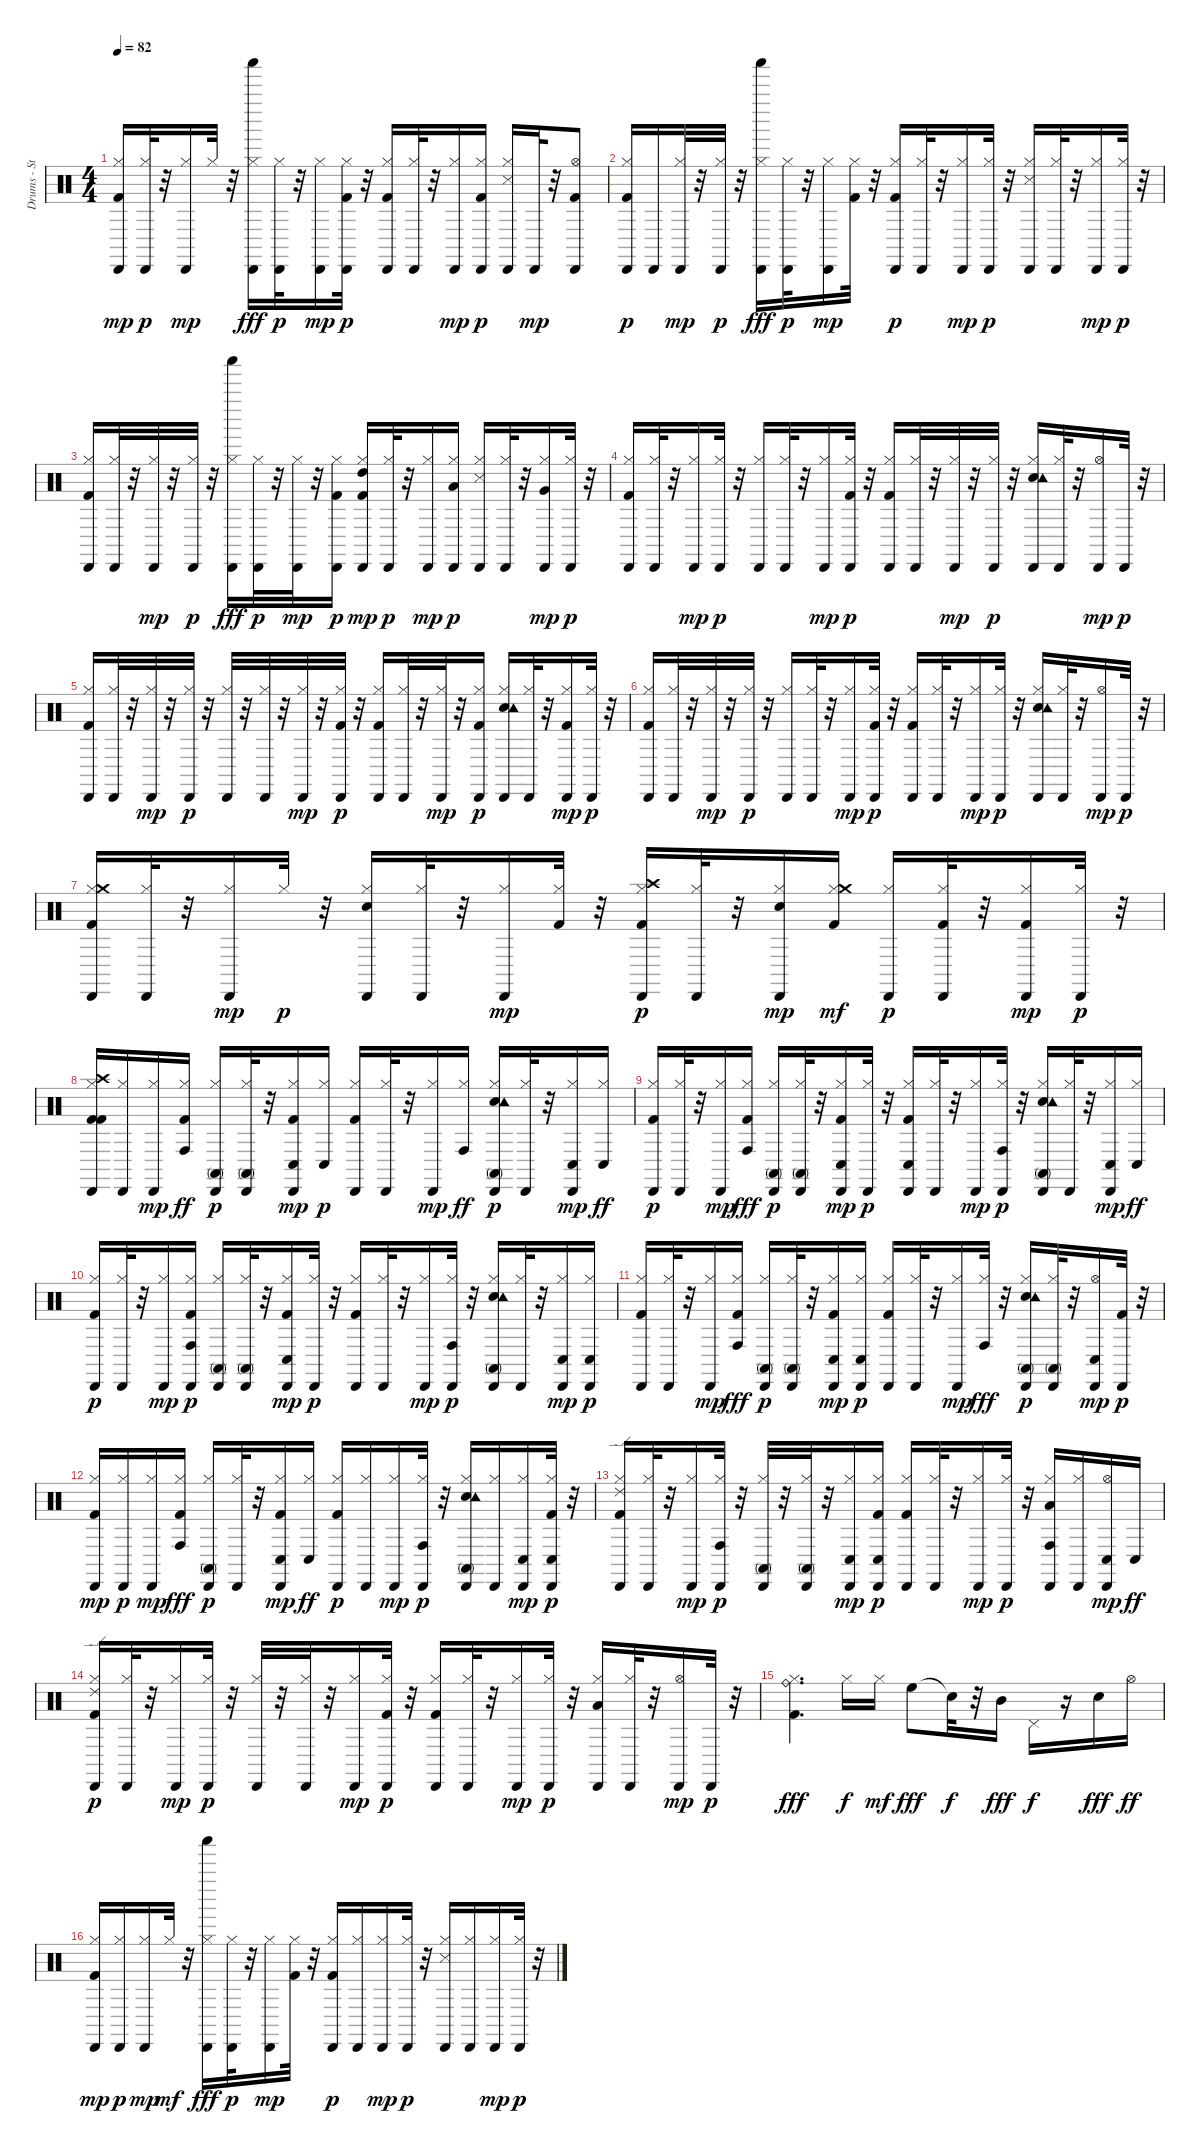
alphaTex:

\track ("Drums - Standard" "Drums - St") {instrument percussion}
\staff {score}
\articulation defaults
\ts (4 4)
\tempo 82
\clef neutral
\ks c
("Kick (hit) 2" "Hi-Hat (closed)" "Cabasa (hit)").16{dy mp} ("Hi-Hat (closed)" "Cabasa (hit)").32{dy p} r.32 ("Hi-Hat (closed)" "Cabasa (hit)").16{dy mp} "Hi-Hat (closed)".32 r.32 ("Hi-Hat (closed)" "Cabasa (hit)" "Shaker (hit)").16{dy fff} ("Hi-Hat (closed)" "Cabasa (hit)").32{dy p} r.32 ("Hi-Hat (closed)" "Cabasa (hit)").16{dy mp} ("Kick (hit) 2" "Hi-Hat (closed)" "Cabasa (hit)").32{dy p} r.32 ("Kick (hit) 2" "Hi-Hat (closed)" "Cabasa (hit)").16 ("Hi-Hat (closed)" "Cabasa (hit)").32 r.32 ("Hi-Hat (closed)" "Cabasa (hit)").16{dy mp} ("Kick (hit) 2" "Hi-Hat (closed)" "Cabasa (hit)").16{dy p} ("Snare (side stick) 3" "Hi-Hat (closed)" "Cabasa (hit)").16 "Cabasa (hit)".32{dy mp} r.32 ("Kick (hit) 2" "Hi-Hat (open)" "Cabasa (hit)").8 |
("Kick (hit) 2" "Hi-Hat (closed)" "Cabasa (hit)").16{dy p} "Cabasa (hit)".16 ("Hi-Hat (closed)" "Cabasa (hit)").32{dy mp} r.32 ("Hi-Hat (closed)" "Cabasa (hit)").32{dy p} r.32 ("Hi-Hat (closed)" "Cabasa (hit)" "Shaker (hit)").16{dy fff} ("Hi-Hat (closed)" "Cabasa (hit)").32{dy p} r.32 ("Hi-Hat (closed)" "Cabasa (hit)").16{dy mp} ("Kick (hit) 2" "Hi-Hat (closed)").32 r.32 ("Kick (hit) 2" "Hi-Hat (closed)" "Cabasa (hit)").16{dy p} ("Hi-Hat (closed)" "Cabasa (hit)").32 r.32 ("Hi-Hat (closed)" "Cabasa (hit)").16{dy mp} ("Hi-Hat (closed)" "Cabasa (hit)").32{dy p} r.32 ("Snare (side stick) 3" "Hi-Hat (closed)" "Cabasa (hit)").16 ("Hi-Hat (closed)" "Cabasa (hit)").32 r.32 ("Hi-Hat (closed)" "Cabasa (hit)").16{dy mp} ("Hi-Hat (closed)" "Cabasa (hit)").32{dy p} r.32 |
("Kick (hit) 2" "Hi-Hat (closed)" "Cabasa (hit)").16 ("Hi-Hat (closed)" "Cabasa (hit)").32 r.32 ("Hi-Hat (closed)" "Cabasa (hit)").32{dy mp} r.32 ("Hi-Hat (closed)" "Cabasa (hit)").32{dy p} r.32 ("Hi-Hat (closed)" "Cabasa (hit)" "Shaker (hit)").16{dy fff} ("Hi-Hat (closed)" "Cabasa (hit)").32{dy p} r.32 ("Hi-Hat (closed)" "Cabasa (hit)").32{dy mp} r.32 ("Kick (hit) 2" "Hi-Hat (closed)" "Cabasa (hit)").16{dy p} ("Kick (hit) 2" "Hi-Hat (closed)" "High Tom (hit)" "Cabasa (hit)").16{dy mp} ("Hi-Hat (closed)" "Cabasa (hit)").32{dy p} r.32 ("Hi-Hat (closed)" "Cabasa (hit)").16{dy mp} ("Hi-Hat (closed)" "Low Tom (hit)" "Cabasa (hit)").16{dy p} ("Snare (side stick) 3" "Hi-Hat (closed)" "Cabasa (hit)").16 ("Hi-Hat (closed)" "Cabasa (hit)").32 r.32 ("Hi-Hat (closed)" "Very Low Tom (hit)" "Cabasa (hit)").16{dy mp} ("Hi-Hat (closed)" "Cabasa (hit)").32{dy p} r.32 |
("Kick (hit) 2" "Hi-Hat (closed)" "Cabasa (hit)").16 ("Hi-Hat (closed)" "Cabasa (hit)").32 r.32 ("Hi-Hat (closed)" "Cabasa (hit)").16{dy mp} ("Hi-Hat (closed)" "Cabasa (hit)").32{dy p} r.32 ("Hi-Hat (closed)" "Cabasa (hit)").16 ("Hi-Hat (closed)" "Cabasa (hit)").32 r.32 ("Hi-Hat (closed)" "Cabasa (hit)").16{dy mp} ("Kick (hit) 2" "Hi-Hat (closed)" "Cabasa (hit)").32{dy p} r.32 ("Kick (hit) 2" "Hi-Hat (closed)" "Cabasa (hit)").16 ("Hi-Hat (closed)" "Cabasa (hit)").32 r.32 ("Hi-Hat (closed)" "Cabasa (hit)").32{dy mp} r.32 ("Hi-Hat (closed)" "Cabasa (hit)").32{dy p} r.32 ("Electric Snare (hit)" "Hi-Hat (closed)" "Tambourine (hit)" "Cabasa (hit)").16 ("Hi-Hat (closed)" "Cabasa (hit)").32 r.32 ("Hi-Hat (open)" "Cabasa (hit)").16{dy mp} "Cabasa (hit)".32{dy p} r.32 |
("Kick (hit) 2" "Hi-Hat (closed)" "Cabasa (hit)").16 ("Hi-Hat (closed)" "Cabasa (hit)").32 r.32 ("Hi-Hat (closed)" "Cabasa (hit)").32{dy mp} r.32 ("Hi-Hat (closed)" "Cabasa (hit)").32{dy p} r.32 ("Hi-Hat (closed)" "Cabasa (hit)").32 r.32 ("Hi-Hat (closed)" "Cabasa (hit)").32 r.32 ("Hi-Hat (closed)" "Cabasa (hit)").32{dy mp} r.32 ("Kick (hit) 2" "Hi-Hat (closed)" "Cabasa (hit)").32{dy p} r.32 ("Kick (hit) 2" "Hi-Hat (closed)" "Cabasa (hit)").16 ("Hi-Hat (closed)" "Cabasa (hit)").32 r.32 ("Hi-Hat (closed)" "Cabasa (hit)").32{dy mp} r.32 ("Kick (hit) 2" "Hi-Hat (closed)" "Cabasa (hit)").16{dy p} ("Electric Snare (hit)" "Hi-Hat (closed)" "Tambourine (hit)" "Cabasa (hit)").16 ("Hi-Hat (closed)" "Cabasa (hit)").32 r.32 ("Kick (hit) 2" "Hi-Hat (closed)" "Cabasa (hit)").16{dy mp} ("Hi-Hat (closed)" "Cabasa (hit)").32{dy p} r.32 |
("Kick (hit) 2" "Hi-Hat (closed)" "Cabasa (hit)").16 ("Hi-Hat (closed)" "Cabasa (hit)").32 r.32 ("Hi-Hat (closed)" "Cabasa (hit)").32{dy mp} r.32 ("Hi-Hat (closed)" "Cabasa (hit)").32{dy p} r.32 ("Hi-Hat (closed)" "Cabasa (hit)").16 ("Hi-Hat (closed)" "Cabasa (hit)").32 r.32 ("Hi-Hat (closed)" "Cabasa (hit)").16{dy mp} ("Kick (hit) 2" "Hi-Hat (closed)" "Cabasa (hit)").32{dy p} r.32 ("Kick (hit) 2" "Hi-Hat (closed)" "Cabasa (hit)").16 ("Hi-Hat (closed)" "Cabasa (hit)").32 r.32 ("Hi-Hat (closed)" "Cabasa (hit)").16{dy mp} ("Hi-Hat (closed)" "Cabasa (hit)").32{dy p} r.32 ("Electric Snare (hit)" "Hi-Hat (closed)" "Tambourine (hit)" "Cabasa (hit)").16 ("Hi-Hat (closed)" "Cabasa (hit)").32 r.32 ("Hi-Hat (open)" "Cabasa (hit)").16{dy mp} "Cabasa (hit)".32{dy p} r.32 |
("Kick (hit) 2" "Hi-Hat (closed)" "Crash medium (hit)" "Cabasa (hit)").16 ("Hi-Hat (closed)" "Cabasa (hit)").32 r.32 ("Hi-Hat (closed)" "Cabasa (hit)").16{dy mp} "Hi-Hat (closed)".32{dy p} r.32 ("Electric Snare (hit)" "Hi-Hat (closed)" "Cabasa (hit)").16 ("Hi-Hat (closed)" "Cabasa (hit)").32 r.32 ("Hi-Hat (closed)" "Cabasa (hit)").16{dy mp} ("Kick (hit) 2" "Hi-Hat (closed)").32 r.32 ("Kick (hit) 2" "Hi-Hat (closed)" "Crash high (hit)" "Cabasa (hit)").16{dy p} ("Hi-Hat (closed)" "Cabasa (hit)").32 r.32 ("Electric Snare (hit)" "Hi-Hat (closed)" "Cabasa (hit)").16{dy mp} ("Kick (hit) 2" "Hi-Hat (closed)" "Crash medium (hit)").16{dy mf} ("Hi-Hat (closed)" "Cabasa (hit)").16{dy p} ("Kick (hit) 2" "Hi-Hat (closed)" "Cabasa (hit)").32 r.32 ("Kick (hit) 2" "Hi-Hat (closed)" "Cabasa (hit)").16{dy mp} ("Hi-Hat (closed)" "Cabasa (hit)").32{dy p} r.32 |
("Kick (hit) 2" "Kick (hit) 2" "Hi-Hat (closed)" "Crash high (hit)" "Cabasa (hit)").16 ("Hi-Hat (closed)" "Cabasa (hit)").16 ("Hi-Hat (closed)" "Cabasa (hit)").16{dy mp} ("Kick (hit) 2" "Hi-Hat (closed)" "Conga high (hit)").16{dy ff} ("Hi-Hat (closed)" "Conga high (mute)" "Cabasa (hit)").16{dy p} ("Hi-Hat (closed)" "Conga high (mute)" "Cabasa (hit)").32 r.32 ("Kick (hit) 2" "Hi-Hat (closed)" "Conga low (hit)" "Cabasa (hit)").16{dy mp} ("Hi-Hat (closed)" "Conga low (hit)").16{dy p} ("Kick (hit) 2" "Hi-Hat (closed)" "Cabasa (hit)").16 ("Hi-Hat (closed)" "Cabasa (hit)").32 r.32 ("Hi-Hat (closed)" "Cabasa (hit)").16{dy mp} ("Hi-Hat (closed)" "Conga high (hit)").16{dy ff} ("Electric Snare (hit)" "Hi-Hat (closed)" "Tambourine (hit)" "Conga high (mute)" "Cabasa (hit)").16{dy p} ("Hi-Hat (closed)" "Cabasa (hit)").32 r.32 ("Hi-Hat (closed)" "Conga low (hit)" "Cabasa (hit)").16{dy mp} ("Hi-Hat (closed)" "Conga low (hit)").16{dy ff} |
("Kick (hit) 2" "Hi-Hat (closed)" "Cabasa (hit)").16{dy p} ("Hi-Hat (closed)" "Cabasa (hit)").32 r.32 ("Hi-Hat (closed)" "Cabasa (hit)").16{dy mp} ("Kick (hit) 2" "Hi-Hat (closed)" "Conga high (hit)").16{dy fff} ("Hi-Hat (closed)" "Conga high (mute)" "Cabasa (hit)").16{dy p} ("Hi-Hat (closed)" "Conga high (mute)" "Cabasa (hit)").32 r.32 ("Kick (hit) 2" "Hi-Hat (closed)" "Conga low (hit)" "Cabasa (hit)").16{dy mp} ("Hi-Hat (closed)" "Cabasa (hit)").32{dy p} r.32 ("Kick (hit) 2" "Hi-Hat (closed)" "Conga low (hit)" "Cabasa (hit)").16 ("Hi-Hat (closed)" "Cabasa (hit)").32 r.32 ("Hi-Hat (closed)" "Cabasa (hit)").16{dy mp} ("Hi-Hat (closed)" "Conga high (hit)" "Cabasa (hit)").32{dy p} r.32 ("Electric Snare (hit)" "Hi-Hat (closed)" "Tambourine (hit)" "Conga high (mute)" "Cabasa (hit)").16 ("Hi-Hat (closed)" "Cabasa (hit)").32 r.32 ("Hi-Hat (closed)" "Conga low (hit)" "Cabasa (hit)").16{dy mp} ("Hi-Hat (closed)" "Conga low (hit)").16{dy ff} |
("Kick (hit) 2" "Hi-Hat (closed)" "Cabasa (hit)").16{dy p} ("Hi-Hat (closed)" "Cabasa (hit)").32 r.32 ("Hi-Hat (closed)" "Cabasa (hit)").16{dy mp} ("Kick (hit) 2" "Hi-Hat (closed)" "Conga high (hit)" "Cabasa (hit)").16{dy p} ("Hi-Hat (closed)" "Conga high (mute)" "Cabasa (hit)").16 ("Hi-Hat (closed)" "Conga high (mute)" "Cabasa (hit)").32 r.32 ("Kick (hit) 2" "Hi-Hat (closed)" "Conga low (hit)" "Cabasa (hit)").16{dy mp} ("Hi-Hat (closed)" "Cabasa (hit)").32{dy p} r.32 ("Kick (hit) 2" "Hi-Hat (closed)" "Cabasa (hit)").16 ("Hi-Hat (closed)" "Cabasa (hit)").32 r.32 ("Hi-Hat (closed)" "Cabasa (hit)").16{dy mp} ("Hi-Hat (closed)" "Conga high (hit)" "Cabasa (hit)").32{dy p} r.32 ("Electric Snare (hit)" "Hi-Hat (closed)" "Tambourine (hit)" "Conga high (mute)" "Cabasa (hit)").16 ("Hi-Hat (closed)" "Cabasa (hit)").32 r.32 ("Hi-Hat (closed)" "Conga low (hit)" "Cabasa (hit)").16{dy mp} ("Hi-Hat (closed)" "Conga low (hit)" "Cabasa (hit)").16{dy p} |
("Kick (hit) 2" "Hi-Hat (closed)" "Cabasa (hit)").16 ("Hi-Hat (closed)" "Cabasa (hit)").32 r.32 ("Hi-Hat (closed)" "Cabasa (hit)").16{dy mp} ("Kick (hit) 2" "Hi-Hat (closed)" "Conga high (hit)").16{dy fff} ("Hi-Hat (closed)" "Conga high (mute)" "Cabasa (hit)").16{dy p} ("Hi-Hat (closed)" "Conga high (mute)" "Cabasa (hit)").32 r.32 ("Kick (hit) 2" "Hi-Hat (closed)" "Conga low (hit)" "Cabasa (hit)").16{dy mp} ("Hi-Hat (closed)" "Conga low (hit)" "Cabasa (hit)").16{dy p} ("Kick (hit) 2" "Hi-Hat (closed)" "Cabasa (hit)").16 ("Hi-Hat (closed)" "Cabasa (hit)").32 r.32 ("Hi-Hat (closed)" "Cabasa (hit)").16{dy mp} ("Hi-Hat (closed)" "Conga high (hit)").32{dy fff} r.32 ("Electric Snare (hit)" "Hi-Hat (closed)" "Tambourine (hit)" "Conga high (mute)" "Cabasa (hit)").16{dy p} ("Hi-Hat (closed)" "Conga high (mute)" "Cabasa (hit)").32 r.32 ("Hi-Hat (open)" "Conga low (hit)" "Cabasa (hit)").16{dy mp} ("Kick (hit) 2" "Cabasa (hit)").32{dy p} r.32 |
("Kick (hit) 2" "Hi-Hat (closed)" "Cabasa (hit)").16{dy mp} ("Hi-Hat (closed)" "Cabasa (hit)").16{dy p} ("Hi-Hat (closed)" "Cabasa (hit)").16{dy mp} ("Kick (hit) 2" "Hi-Hat (closed)" "Conga high (hit)").16{dy fff} ("Hi-Hat (closed)" "Conga high (mute)" "Cabasa (hit)").16{dy p} ("Hi-Hat (closed)" "Cabasa (hit)").32 r.32 ("Kick (hit) 2" "Hi-Hat (closed)" "Conga low (hit)" "Cabasa (hit)").16{dy mp} ("Hi-Hat (closed)" "Conga low (hit)").16{dy ff} ("Kick (hit) 2" "Hi-Hat (closed)" "Cabasa (hit)").16{dy p} ("Hi-Hat (closed)" "Cabasa (hit)").16 ("Hi-Hat (closed)" "Cabasa (hit)").16{dy mp} ("Hi-Hat (closed)" "Conga high (hit)" "Cabasa (hit)").32{dy p} r.32 ("Electric Snare (hit)" "Hi-Hat (closed)" "Tambourine (hit)" "Conga high (mute)" "Cabasa (hit)").16 ("Hi-Hat (closed)" "Cabasa (hit)").16 ("Hi-Hat (closed)" "Conga low (hit)" "Cabasa (hit)").16{dy mp} ("Kick (hit) 2" "Hi-Hat (closed)" "Conga low (hit)" "Cabasa (hit)").32{dy p} r.32 |
("Kick (hit) 2" "Hi-Hat (closed)" "Ride (edge) 2" "Cabasa (hit)").16 ("Hi-Hat (closed)" "Cabasa (hit)").32 r.32 ("Hi-Hat (closed)" "Cabasa (hit)").16{dy mp} ("Hi-Hat (closed)" "Conga high (hit)" "Cabasa (hit)").32{dy p} r.32 ("Hi-Hat (closed)" "Conga high (mute)" "Cabasa (hit)").32 r.32 ("Hi-Hat (closed)" "Conga high (mute)" "Cabasa (hit)").32 r.32 ("Hi-Hat (closed)" "Conga low (hit)" "Cabasa (hit)").16{dy mp} ("Kick (hit) 2" "Hi-Hat (closed)" "Conga low (hit)" "Cabasa (hit)").16{dy p} ("Kick (hit) 2" "Hi-Hat (closed)" "Cabasa (hit)").16 ("Hi-Hat (closed)" "Cabasa (hit)").32 r.32 ("Hi-Hat (closed)" "Cabasa (hit)").16{dy mp} ("Hi-Hat (closed)" "Cabasa (hit)").32{dy p} r.32 ("Hi-Hat (closed)" "Low Tom (hit)" "Conga high (hit)" "Cabasa (hit)").16 ("Hi-Hat (closed)" "Cabasa (hit)").16 ("Hi-Hat (open)" "Conga low (hit)" "Cabasa (hit)").16{dy mp} "Conga low (hit)".16{dy ff} |
("Kick (hit) 2" "Hi-Hat (closed)" "Ride (edge) 2" "Cabasa (hit)").16{dy p} ("Hi-Hat (closed)" "Cabasa (hit)").32 r.32 ("Hi-Hat (closed)" "Cabasa (hit)").16{dy mp} ("Hi-Hat (closed)" "Cabasa (hit)").32{dy p} r.32 ("Hi-Hat (closed)" "Cabasa (hit)").32 r.32 ("Hi-Hat (closed)" "Cabasa (hit)").32 r.32 ("Hi-Hat (closed)" "Cabasa (hit)").16{dy mp} ("Kick (hit) 2" "Hi-Hat (closed)" "Cabasa (hit)").32{dy p} r.32 ("Kick (hit) 2" "Hi-Hat (closed)" "Cabasa (hit)").16 ("Hi-Hat (closed)" "Cabasa (hit)").32 r.32 ("Hi-Hat (closed)" "Cabasa (hit)").16{dy mp} ("Hi-Hat (closed)" "Cabasa (hit)").32{dy p} r.32 ("Hi-Hat (closed)" "Low Tom (hit)" "Cabasa (hit)").16 ("Hi-Hat (closed)" "Cabasa (hit)").32 r.32 ("Hi-Hat (open)" "Cabasa (hit)").16{dy mp} "Cabasa (hit)".32{dy p} r.32 |
("Kick (hit) 2" "Hi-Hat (closed)" "Ride (bell)").4{d dy fff} "Hi-Hat (closed)".16{dy f} "Hi-Hat (closed)".16{dy mf} "High Floor Tom (hit)".8{dy fff} "Snare (hit)"{t}.32{dy f} r.32 "Mid Tom (hit)".16{dy fff} "Pedal Hi-Hat (hit)".16{dy f} r.16 "Electric Snare (hit)".16{dy fff} "Hi-Hat (open)".16{dy ff} |
("Kick (hit) 2" "Hi-Hat (closed)" "Cabasa (hit)").16{dy mp} ("Hi-Hat (closed)" "Cabasa (hit)").16{dy p} ("Hi-Hat (closed)" "Cabasa (hit)").16{dy mp} "Hi-Hat (closed)".32{dy mf} r.32 ("Hi-Hat (closed)" "Cabasa (hit)" "Shaker (hit)").16{dy fff} ("Hi-Hat (closed)" "Cabasa (hit)").32{dy p} r.32 ("Hi-Hat (closed)" "Cabasa (hit)").16{dy mp} ("Kick (hit) 2" "Hi-Hat (closed)").32 r.32 ("Kick (hit) 2" "Hi-Hat (closed)" "Cabasa (hit)").16{dy p} ("Hi-Hat (closed)" "Cabasa (hit)").16 ("Hi-Hat (closed)" "Cabasa (hit)").16{dy mp} ("Hi-Hat (closed)" "Cabasa (hit)").32{dy p} r.32 ("Snare (side stick) 3" "Hi-Hat (closed)" "Cabasa (hit)").16 ("Hi-Hat (closed)" "Cabasa (hit)").16 ("Hi-Hat (closed)" "Cabasa (hit)").16{dy mp} ("Hi-Hat (closed)" "Cabasa (hit)").32{dy p} r.32
